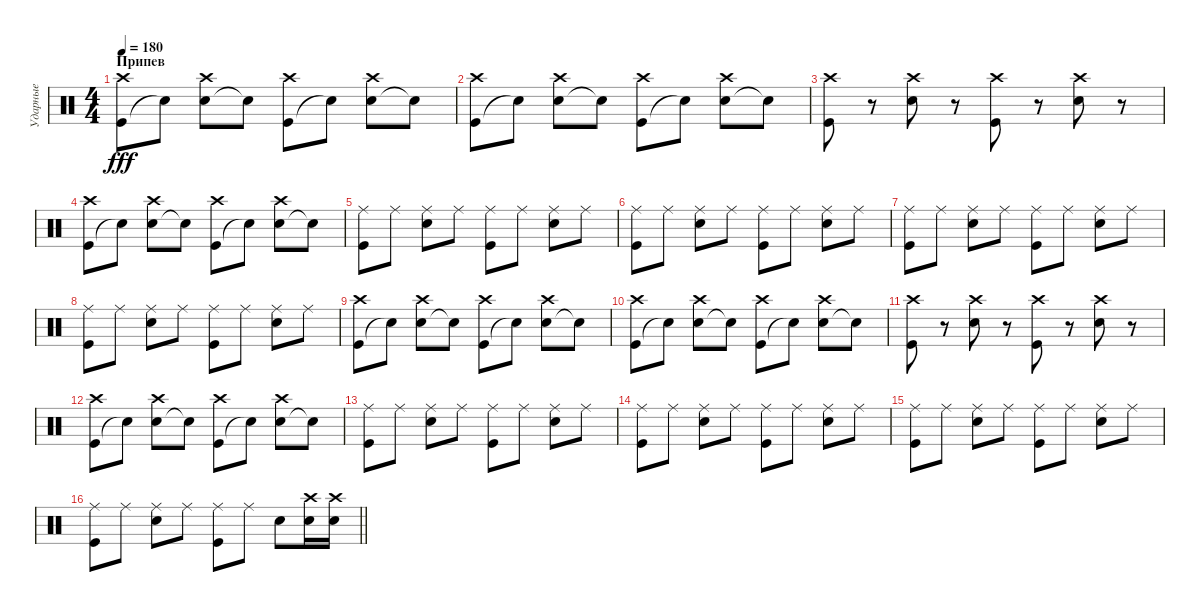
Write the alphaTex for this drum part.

\track ("Ударные" "Ударные") {instrument percussion}
\staff {score}
\articulation defaults
\ts (4 4)
\section ("" "Припев")
\tempo 180
\clef neutral
\ks c
("Kick (hit)" "Crash high (hit)").8{dy fff} "Snare (hit)"{t}.8 ("Electric Snare (hit)" "Crash high (hit)").8 "Snare (hit)"{t}.8 ("Kick (hit)" "Crash high (hit)").8 "Snare (hit)"{t}.8 ("Electric Snare (hit)" "Crash high (hit)").8 "Snare (hit)"{t}.8 |
("Kick (hit)" "Crash high (hit)").8 "Snare (hit)"{t}.8 ("Electric Snare (hit)" "Crash high (hit)").8 "Snare (hit)"{t}.8 ("Kick (hit)" "Crash high (hit)").8 "Snare (hit)"{t}.8 ("Electric Snare (hit)" "Crash high (hit)").8 "Snare (hit)"{t}.8 |
("Kick (hit)" "Crash high (hit)").8 r.8 ("Electric Snare (hit)" "Crash high (hit)").8 r.8 ("Kick (hit)" "Crash high (hit)").8 r.8 ("Electric Snare (hit)" "Crash high (hit)").8 r.8 |
("Kick (hit)" "Crash high (hit)").8 "Snare (hit)"{t}.8 ("Electric Snare (hit)" "Crash high (hit)").8 "Snare (hit)"{t}.8 ("Kick (hit)" "Crash high (hit)").8 "Snare (hit)"{t}.8 ("Electric Snare (hit)" "Crash high (hit)").8 "Snare (hit)"{t}.8 |
("Kick (hit)" "Ride (middle)").8 "Ride (middle)".8 ("Electric Snare (hit)" "Ride (middle)").8 "Ride (middle)".8 ("Kick (hit)" "Ride (middle)").8 "Ride (middle)".8 ("Electric Snare (hit)" "Ride (middle)").8 "Ride (middle)".8 |
("Kick (hit)" "Ride (middle)").8 "Ride (middle)".8 ("Electric Snare (hit)" "Ride (middle)").8 "Ride (middle)".8 ("Kick (hit)" "Ride (middle)").8 "Ride (middle)".8 ("Electric Snare (hit)" "Ride (middle)").8 "Ride (middle)".8 |
("Kick (hit)" "Ride (middle)").8 "Ride (middle)".8 ("Electric Snare (hit)" "Ride (middle)").8 "Ride (middle)".8 ("Kick (hit)" "Ride (middle)").8 "Ride (middle)".8 ("Electric Snare (hit)" "Ride (middle)").8 "Ride (middle)".8 |
("Kick (hit)" "Ride (middle)").8 "Ride (middle)".8 ("Electric Snare (hit)" "Ride (middle)").8 "Ride (middle)".8 ("Kick (hit)" "Ride (middle)").8 "Ride (middle)".8 ("Electric Snare (hit)" "Ride (middle)").8 "Ride (middle)".8 |
("Kick (hit)" "Crash high (hit)").8 "Snare (hit)"{t}.8 ("Electric Snare (hit)" "Crash high (hit)").8 "Snare (hit)"{t}.8 ("Kick (hit)" "Crash high (hit)").8 "Snare (hit)"{t}.8 ("Electric Snare (hit)" "Crash high (hit)").8 "Snare (hit)"{t}.8 |
("Kick (hit)" "Crash high (hit)").8 "Snare (hit)"{t}.8 ("Electric Snare (hit)" "Crash high (hit)").8 "Snare (hit)"{t}.8 ("Kick (hit)" "Crash high (hit)").8 "Snare (hit)"{t}.8 ("Electric Snare (hit)" "Crash high (hit)").8 "Snare (hit)"{t}.8 |
("Kick (hit)" "Crash high (hit)").8 r.8 ("Electric Snare (hit)" "Crash high (hit)").8 r.8 ("Kick (hit)" "Crash high (hit)").8 r.8 ("Electric Snare (hit)" "Crash high (hit)").8 r.8 |
("Kick (hit)" "Crash high (hit)").8 "Snare (hit)"{t}.8 ("Electric Snare (hit)" "Crash high (hit)").8 "Snare (hit)"{t}.8 ("Kick (hit)" "Crash high (hit)").8 "Snare (hit)"{t}.8 ("Electric Snare (hit)" "Crash high (hit)").8 "Snare (hit)"{t}.8 |
("Kick (hit)" "Ride (middle)").8 "Ride (middle)".8 ("Electric Snare (hit)" "Ride (middle)").8 "Ride (middle)".8 ("Kick (hit)" "Ride (middle)").8 "Ride (middle)".8 ("Electric Snare (hit)" "Ride (middle)").8 "Ride (middle)".8 |
("Kick (hit)" "Ride (middle)").8 "Ride (middle)".8 ("Electric Snare (hit)" "Ride (middle)").8 "Ride (middle)".8 ("Kick (hit)" "Ride (middle)").8 "Ride (middle)".8 ("Electric Snare (hit)" "Ride (middle)").8 "Ride (middle)".8 |
("Kick (hit)" "Ride (middle)").8 "Ride (middle)".8 ("Electric Snare (hit)" "Ride (middle)").8 "Ride (middle)".8 ("Kick (hit)" "Ride (middle)").8 "Ride (middle)".8 ("Electric Snare (hit)" "Ride (middle)").8 "Ride (middle)".8 |
\barLineRight lightlight
("Kick (hit)" "Ride (middle)").8 "Ride (middle)".8 ("Electric Snare (hit)" "Ride (middle)").8 "Ride (middle)".8 ("Kick (hit)" "Ride (middle)").8 "Ride (middle)".8 "Electric Snare (hit)".8 ("Electric Snare (hit)" "Crash high (hit)").16 ("Electric Snare (hit)" "Crash high (hit)").16
